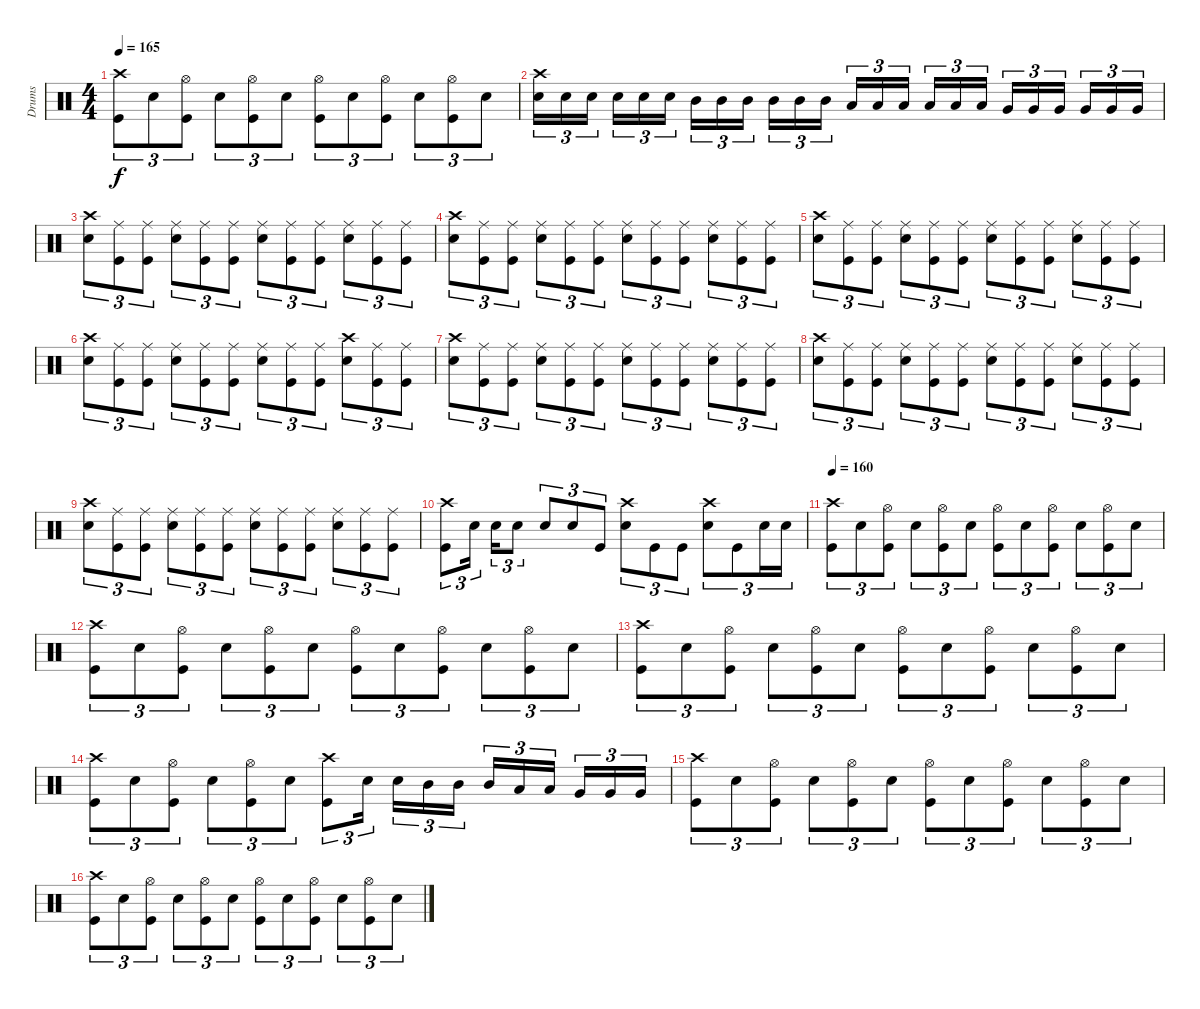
\track ("Drums" "Drums") {instrument percussion}
\staff {score}
\articulation defaults
\ts (4 4)
\tempo 165
\clef neutral
\ks c
("Crash high (hit)" "Kick (hit)").8{tu (3 2) dy f} "Electric Snare (hit)".8{tu (3 2)} ("Hi-Hat (open)" "Kick (hit)").8{tu (3 2)} "Electric Snare (hit)".8{tu (3 2)} ("Hi-Hat (open)" "Kick (hit)").8{tu (3 2)} "Electric Snare (hit)".8{tu (3 2)} ("Hi-Hat (open)" "Kick (hit)").8{tu (3 2)} "Electric Snare (hit)".8{tu (3 2)} ("Hi-Hat (open)" "Kick (hit)").8{tu (3 2)} "Electric Snare (hit)".8{tu (3 2)} ("Hi-Hat (open)" "Kick (hit)").8{tu (3 2)} "Electric Snare (hit)".8{tu (3 2)} |
("Crash high (hit)" "Electric Snare (hit)").16{tu (3 2)} "Electric Snare (hit)".16{tu (3 2)} "Electric Snare (hit)".16{tu (3 2)} "Electric Snare (hit)".16{tu (3 2)} "Electric Snare (hit)".16{tu (3 2)} "Electric Snare (hit)".16{tu (3 2)} "Mid Tom (hit)".16{tu (3 2)} "Mid Tom (hit)".16{tu (3 2)} "Mid Tom (hit)".16{tu (3 2)} "Mid Tom (hit)".16{tu (3 2)} "Mid Tom (hit)".16{tu (3 2)} "Mid Tom (hit)".16{tu (3 2)} "Low Tom (hit)".16{tu (3 2)} "Low Tom (hit)".16{tu (3 2)} "Low Tom (hit)".16{tu (3 2)} "Low Tom (hit)".16{tu (3 2)} "Low Tom (hit)".16{tu (3 2)} "Low Tom (hit)".16{tu (3 2)} "Very Low Tom (hit)".16{tu (3 2)} "Very Low Tom (hit)".16{tu (3 2)} "Very Low Tom (hit)".16{tu (3 2)} "Very Low Tom (hit)".16{tu (3 2)} "Very Low Tom (hit)".16{tu (3 2)} "Very Low Tom (hit)".16{tu (3 2)} |
("Crash high (hit)" "Electric Snare (hit)").8{tu (3 2)} ("Ride (middle)" "Kick (hit)").8{tu (3 2)} ("Ride (middle)" "Kick (hit)").8{tu (3 2)} ("Ride (middle)" "Electric Snare (hit)").8{tu (3 2)} ("Ride (middle)" "Kick (hit)").8{tu (3 2)} ("Ride (middle)" "Kick (hit)").8{tu (3 2)} ("Ride (middle)" "Electric Snare (hit)").8{tu (3 2)} ("Ride (middle)" "Kick (hit)").8{tu (3 2)} ("Ride (middle)" "Kick (hit)").8{tu (3 2)} ("Ride (middle)" "Electric Snare (hit)").8{tu (3 2)} ("Ride (middle)" "Kick (hit)").8{tu (3 2)} ("Ride (middle)" "Kick (hit)").8{tu (3 2)} |
("Crash high (hit)" "Electric Snare (hit)").8{tu (3 2)} ("Ride (middle)" "Kick (hit)").8{tu (3 2)} ("Ride (middle)" "Kick (hit)").8{tu (3 2)} ("Ride (middle)" "Electric Snare (hit)").8{tu (3 2)} ("Ride (middle)" "Kick (hit)").8{tu (3 2)} ("Ride (middle)" "Kick (hit)").8{tu (3 2)} ("Ride (middle)" "Electric Snare (hit)").8{tu (3 2)} ("Ride (middle)" "Kick (hit)").8{tu (3 2)} ("Ride (middle)" "Kick (hit)").8{tu (3 2)} ("Ride (middle)" "Electric Snare (hit)").8{tu (3 2)} ("Ride (middle)" "Kick (hit)").8{tu (3 2)} ("Ride (middle)" "Kick (hit)").8{tu (3 2)} |
("Crash high (hit)" "Electric Snare (hit)").8{tu (3 2)} ("Ride (middle)" "Kick (hit)").8{tu (3 2)} ("Ride (middle)" "Kick (hit)").8{tu (3 2)} ("Ride (middle)" "Electric Snare (hit)").8{tu (3 2)} ("Ride (middle)" "Kick (hit)").8{tu (3 2)} ("Ride (middle)" "Kick (hit)").8{tu (3 2)} ("Ride (middle)" "Electric Snare (hit)").8{tu (3 2)} ("Ride (middle)" "Kick (hit)").8{tu (3 2)} ("Ride (middle)" "Kick (hit)").8{tu (3 2)} ("Ride (middle)" "Electric Snare (hit)").8{tu (3 2)} ("Ride (middle)" "Kick (hit)").8{tu (3 2)} ("Ride (middle)" "Kick (hit)").8{tu (3 2)} |
("Crash high (hit)" "Electric Snare (hit)").8{tu (3 2)} ("Ride (middle)" "Kick (hit)").8{tu (3 2)} ("Ride (middle)" "Kick (hit)").8{tu (3 2)} ("Ride (middle)" "Electric Snare (hit)").8{tu (3 2)} ("Ride (middle)" "Kick (hit)").8{tu (3 2)} ("Ride (middle)" "Kick (hit)").8{tu (3 2)} ("Ride (middle)" "Electric Snare (hit)").8{tu (3 2)} ("Ride (middle)" "Kick (hit)").8{tu (3 2)} ("Ride (middle)" "Kick (hit)").8{tu (3 2)} ("Crash high (hit)" "Electric Snare (hit)").8{tu (3 2)} ("Ride (middle)" "Kick (hit)").8{tu (3 2)} ("Ride (middle)" "Kick (hit)").8{tu (3 2)} |
("Crash high (hit)" "Electric Snare (hit)").8{tu (3 2)} ("Ride (middle)" "Kick (hit)").8{tu (3 2)} ("Ride (middle)" "Kick (hit)").8{tu (3 2)} ("Ride (middle)" "Electric Snare (hit)").8{tu (3 2)} ("Ride (middle)" "Kick (hit)").8{tu (3 2)} ("Ride (middle)" "Kick (hit)").8{tu (3 2)} ("Ride (middle)" "Electric Snare (hit)").8{tu (3 2)} ("Ride (middle)" "Kick (hit)").8{tu (3 2)} ("Ride (middle)" "Kick (hit)").8{tu (3 2)} ("Ride (middle)" "Electric Snare (hit)").8{tu (3 2)} ("Ride (middle)" "Kick (hit)").8{tu (3 2)} ("Ride (middle)" "Kick (hit)").8{tu (3 2)} |
("Crash high (hit)" "Electric Snare (hit)").8{tu (3 2)} ("Ride (middle)" "Kick (hit)").8{tu (3 2)} ("Ride (middle)" "Kick (hit)").8{tu (3 2)} ("Ride (middle)" "Electric Snare (hit)").8{tu (3 2)} ("Ride (middle)" "Kick (hit)").8{tu (3 2)} ("Ride (middle)" "Kick (hit)").8{tu (3 2)} ("Ride (middle)" "Electric Snare (hit)").8{tu (3 2)} ("Ride (middle)" "Kick (hit)").8{tu (3 2)} ("Ride (middle)" "Kick (hit)").8{tu (3 2)} ("Ride (middle)" "Electric Snare (hit)").8{tu (3 2)} ("Ride (middle)" "Kick (hit)").8{tu (3 2)} ("Ride (middle)" "Kick (hit)").8{tu (3 2)} |
("Crash high (hit)" "Electric Snare (hit)").8{tu (3 2)} ("Ride (middle)" "Kick (hit)").8{tu (3 2)} ("Ride (middle)" "Kick (hit)").8{tu (3 2)} ("Ride (middle)" "Electric Snare (hit)").8{tu (3 2)} ("Ride (middle)" "Kick (hit)").8{tu (3 2)} ("Ride (middle)" "Kick (hit)").8{tu (3 2)} ("Ride (middle)" "Electric Snare (hit)").8{tu (3 2)} ("Ride (middle)" "Kick (hit)").8{tu (3 2)} ("Ride (middle)" "Kick (hit)").8{tu (3 2)} ("Ride (middle)" "Electric Snare (hit)").8{tu (3 2)} ("Ride (middle)" "Kick (hit)").8{tu (3 2)} ("Ride (middle)" "Kick (hit)").8{tu (3 2)} |
("Crash high (hit)" "Kick (hit)").8{tu (3 2)} "Electric Snare (hit)".16{tu (3 2)} "Electric Snare (hit)".16{tu (3 2)} "Electric Snare (hit)".8{tu (3 2)} "Electric Snare (hit)".8{tu (3 2)} "Electric Snare (hit)".8{tu (3 2)} "Kick (hit)".8{tu (3 2)} ("Crash high (hit)" "Electric Snare (hit)").8{tu (3 2)} "Kick (hit)".8{tu (3 2)} "Kick (hit)".8{tu (3 2)} ("Crash high (hit)" "Electric Snare (hit)").8{tu (3 2)} "Kick (hit)".8{tu (3 2)} "Electric Snare (hit)".16{tu (3 2)} "Electric Snare (hit)".16{tu (3 2)} |
\tempo 160
("Crash high (hit)" "Kick (hit)").8{tu (3 2)} "Electric Snare (hit)".8{tu (3 2)} ("Hi-Hat (open)" "Kick (hit)").8{tu (3 2)} "Electric Snare (hit)".8{tu (3 2)} ("Hi-Hat (open)" "Kick (hit)").8{tu (3 2)} "Electric Snare (hit)".8{tu (3 2)} ("Hi-Hat (open)" "Kick (hit)").8{tu (3 2)} "Electric Snare (hit)".8{tu (3 2)} ("Hi-Hat (open)" "Kick (hit)").8{tu (3 2)} "Electric Snare (hit)".8{tu (3 2)} ("Hi-Hat (open)" "Kick (hit)").8{tu (3 2)} "Electric Snare (hit)".8{tu (3 2)} |
("Crash high (hit)" "Kick (hit)").8{tu (3 2)} "Electric Snare (hit)".8{tu (3 2)} ("Hi-Hat (open)" "Kick (hit)").8{tu (3 2)} "Electric Snare (hit)".8{tu (3 2)} ("Hi-Hat (open)" "Kick (hit)").8{tu (3 2)} "Electric Snare (hit)".8{tu (3 2)} ("Hi-Hat (open)" "Kick (hit)").8{tu (3 2)} "Electric Snare (hit)".8{tu (3 2)} ("Hi-Hat (open)" "Kick (hit)").8{tu (3 2)} "Electric Snare (hit)".8{tu (3 2)} ("Hi-Hat (open)" "Kick (hit)").8{tu (3 2)} "Electric Snare (hit)".8{tu (3 2)} |
("Crash high (hit)" "Kick (hit)").8{tu (3 2)} "Electric Snare (hit)".8{tu (3 2)} ("Hi-Hat (open)" "Kick (hit)").8{tu (3 2)} "Electric Snare (hit)".8{tu (3 2)} ("Hi-Hat (open)" "Kick (hit)").8{tu (3 2)} "Electric Snare (hit)".8{tu (3 2)} ("Hi-Hat (open)" "Kick (hit)").8{tu (3 2)} "Electric Snare (hit)".8{tu (3 2)} ("Hi-Hat (open)" "Kick (hit)").8{tu (3 2)} "Electric Snare (hit)".8{tu (3 2)} ("Hi-Hat (open)" "Kick (hit)").8{tu (3 2)} "Electric Snare (hit)".8{tu (3 2)} |
("Crash high (hit)" "Kick (hit)").8{tu (3 2)} "Electric Snare (hit)".8{tu (3 2)} ("Hi-Hat (open)" "Kick (hit)").8{tu (3 2)} "Electric Snare (hit)".8{tu (3 2)} ("Hi-Hat (open)" "Kick (hit)").8{tu (3 2)} "Electric Snare (hit)".8{tu (3 2)} ("Crash high (hit)" "Kick (hit)").8{tu (3 2)} "Electric Snare (hit)".16{tu (3 2)} "Electric Snare (hit)".16{tu (3 2)} "Mid Tom (hit)".16{tu (3 2)} "Mid Tom (hit)".16{tu (3 2)} "Mid Tom (hit)".16{tu (3 2)} "Low Tom (hit)".16{tu (3 2)} "Low Tom (hit)".16{tu (3 2)} "Very Low Tom (hit)".16{tu (3 2)} "Very Low Tom (hit)".16{tu (3 2)} "Very Low Tom (hit)".16{tu (3 2)} |
("Crash high (hit)" "Kick (hit)").8{tu (3 2)} "Electric Snare (hit)".8{tu (3 2)} ("Hi-Hat (open)" "Kick (hit)").8{tu (3 2)} "Electric Snare (hit)".8{tu (3 2)} ("Hi-Hat (open)" "Kick (hit)").8{tu (3 2)} "Electric Snare (hit)".8{tu (3 2)} ("Hi-Hat (open)" "Kick (hit)").8{tu (3 2)} "Electric Snare (hit)".8{tu (3 2)} ("Hi-Hat (open)" "Kick (hit)").8{tu (3 2)} "Electric Snare (hit)".8{tu (3 2)} ("Hi-Hat (open)" "Kick (hit)").8{tu (3 2)} "Electric Snare (hit)".8{tu (3 2)} |
("Crash high (hit)" "Kick (hit)").8{tu (3 2)} "Electric Snare (hit)".8{tu (3 2)} ("Hi-Hat (open)" "Kick (hit)").8{tu (3 2)} "Electric Snare (hit)".8{tu (3 2)} ("Hi-Hat (open)" "Kick (hit)").8{tu (3 2)} "Electric Snare (hit)".8{tu (3 2)} ("Hi-Hat (open)" "Kick (hit)").8{tu (3 2)} "Electric Snare (hit)".8{tu (3 2)} ("Hi-Hat (open)" "Kick (hit)").8{tu (3 2)} "Electric Snare (hit)".8{tu (3 2)} ("Hi-Hat (open)" "Kick (hit)").8{tu (3 2)} "Electric Snare (hit)".8{tu (3 2)}
